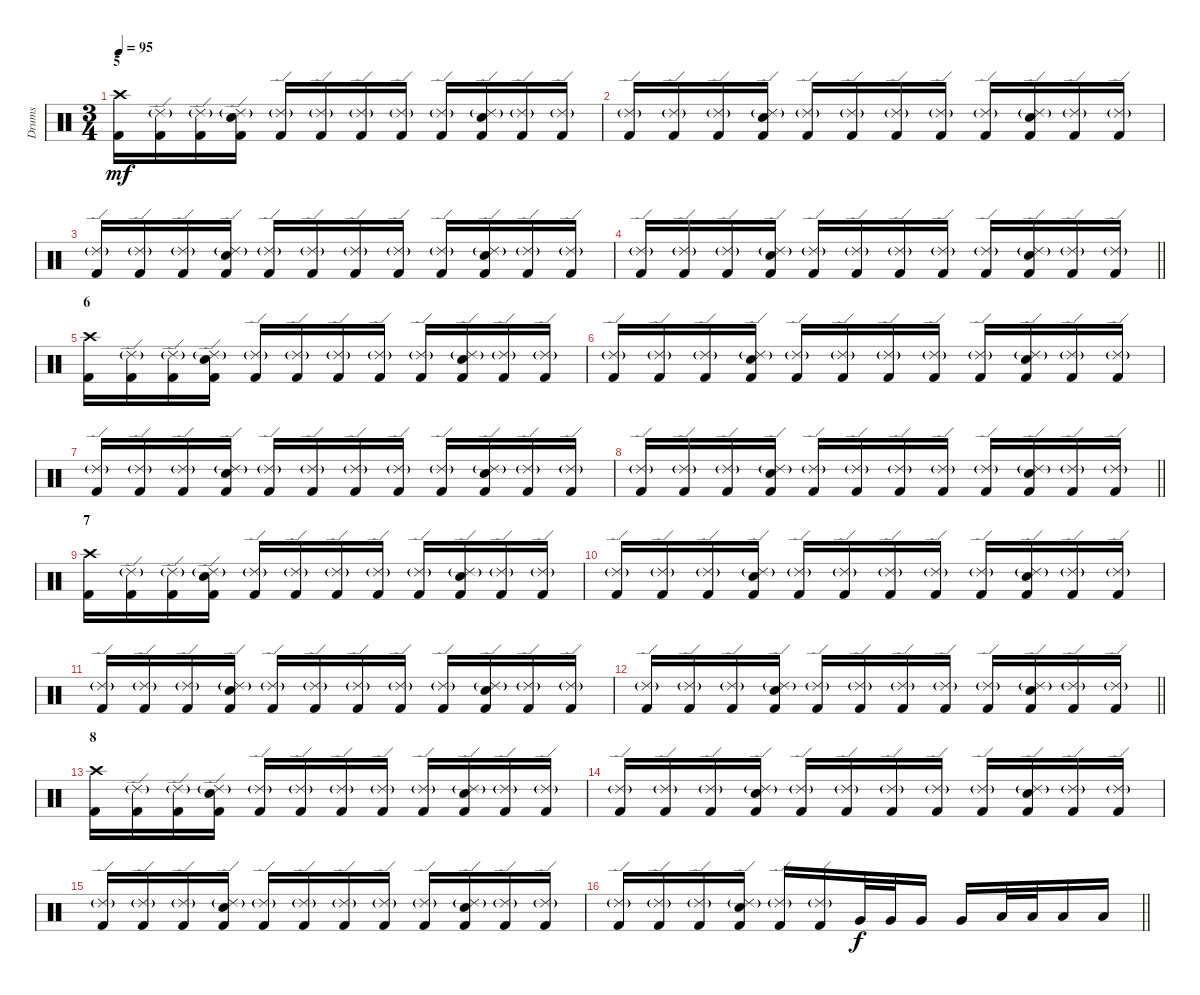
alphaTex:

\track ("Drums" "Drums") {instrument percussion}
\staff {score}
\articulation defaults
\ts (3 4)
\section ("" "5")
\tempo 95
\clef neutral
\ks c
("Crash high (hit)" "Kick (hit) 2").16{dy mf volume 5} ("Ride (edge) 2"{g} "Kick (hit) 2").16 ("Ride (edge) 2"{g} "Kick (hit) 2").16 ("Ride (edge) 2"{g} "Electric Snare (hit)" "Kick (hit) 2").16 ("Ride (edge) 2"{g} "Kick (hit) 2").16 ("Ride (edge) 2"{g} "Kick (hit) 2").16 ("Ride (edge) 2"{g} "Kick (hit) 2").16 ("Ride (edge) 2"{g} "Kick (hit) 2").16 ("Ride (edge) 2"{g} "Kick (hit) 2").16 ("Ride (edge) 2"{g} "Electric Snare (hit)" "Kick (hit) 2").16 ("Ride (edge) 2"{g} "Kick (hit) 2").16 ("Ride (edge) 2"{g} "Kick (hit) 2").16 |
("Ride (edge) 2"{g} "Kick (hit) 2").16 ("Ride (edge) 2"{g} "Kick (hit) 2").16 ("Ride (edge) 2"{g} "Kick (hit) 2").16 ("Ride (edge) 2"{g} "Electric Snare (hit)" "Kick (hit) 2").16 ("Ride (edge) 2"{g} "Kick (hit) 2").16 ("Ride (edge) 2"{g} "Kick (hit) 2").16 ("Ride (edge) 2"{g} "Kick (hit) 2").16 ("Ride (edge) 2"{g} "Kick (hit) 2").16 ("Ride (edge) 2"{g} "Kick (hit) 2").16 ("Ride (edge) 2"{g} "Electric Snare (hit)" "Kick (hit) 2").16 ("Ride (edge) 2"{g} "Kick (hit) 2").16 ("Ride (edge) 2"{g} "Kick (hit) 2").16 |
("Ride (edge) 2"{g} "Kick (hit) 2").16{volume 6} ("Ride (edge) 2"{g} "Kick (hit) 2").16 ("Ride (edge) 2"{g} "Kick (hit) 2").16 ("Ride (edge) 2"{g} "Electric Snare (hit)" "Kick (hit) 2").16 ("Ride (edge) 2"{g} "Kick (hit) 2").16 ("Ride (edge) 2"{g} "Kick (hit) 2").16 ("Ride (edge) 2"{g} "Kick (hit) 2").16 ("Ride (edge) 2"{g} "Kick (hit) 2").16 ("Ride (edge) 2"{g} "Kick (hit) 2").16 ("Ride (edge) 2"{g} "Electric Snare (hit)" "Kick (hit) 2").16 ("Ride (edge) 2"{g} "Kick (hit) 2").16 ("Ride (edge) 2"{g} "Kick (hit) 2").16 |
\barLineRight lightlight
("Ride (edge) 2"{g} "Kick (hit) 2").16{volume 7} ("Ride (edge) 2"{g} "Kick (hit) 2").16 ("Ride (edge) 2"{g} "Kick (hit) 2").16 ("Ride (edge) 2"{g} "Electric Snare (hit)" "Kick (hit) 2").16 ("Ride (edge) 2"{g} "Kick (hit) 2").16 ("Ride (edge) 2"{g} "Kick (hit) 2").16 ("Ride (edge) 2"{g} "Kick (hit) 2").16 ("Ride (edge) 2"{g} "Kick (hit) 2").16 ("Ride (edge) 2"{g} "Kick (hit) 2").16 ("Ride (edge) 2"{g} "Electric Snare (hit)" "Kick (hit) 2").16 ("Ride (edge) 2"{g} "Kick (hit) 2").16 ("Ride (edge) 2"{g} "Kick (hit) 2").16 |
\section ("" "6")
("Crash high (hit)" "Kick (hit) 2").16{volume 8} ("Ride (edge) 2"{g} "Kick (hit) 2").16 ("Ride (edge) 2"{g} "Kick (hit) 2").16 ("Ride (edge) 2"{g} "Electric Snare (hit)" "Kick (hit) 2").16 ("Ride (edge) 2"{g} "Kick (hit) 2").16 ("Ride (edge) 2"{g} "Kick (hit) 2").16 ("Ride (edge) 2"{g} "Kick (hit) 2").16 ("Ride (edge) 2"{g} "Kick (hit) 2").16 ("Ride (edge) 2"{g} "Kick (hit) 2").16 ("Ride (edge) 2"{g} "Electric Snare (hit)" "Kick (hit) 2").16 ("Ride (edge) 2"{g} "Kick (hit) 2").16 ("Ride (edge) 2"{g} "Kick (hit) 2").16 |
("Ride (edge) 2"{g} "Kick (hit) 2").16{volume 8} ("Ride (edge) 2"{g} "Kick (hit) 2").16 ("Ride (edge) 2"{g} "Kick (hit) 2").16 ("Ride (edge) 2"{g} "Electric Snare (hit)" "Kick (hit) 2").16 ("Ride (edge) 2"{g} "Kick (hit) 2").16 ("Ride (edge) 2"{g} "Kick (hit) 2").16 ("Ride (edge) 2"{g} "Kick (hit) 2").16 ("Ride (edge) 2"{g} "Kick (hit) 2").16 ("Ride (edge) 2"{g} "Kick (hit) 2").16 ("Ride (edge) 2"{g} "Electric Snare (hit)" "Kick (hit) 2").16 ("Ride (edge) 2"{g} "Kick (hit) 2").16 ("Ride (edge) 2"{g} "Kick (hit) 2").16 |
("Ride (edge) 2"{g} "Kick (hit) 2").16{volume 9} ("Ride (edge) 2"{g} "Kick (hit) 2").16 ("Ride (edge) 2"{g} "Kick (hit) 2").16 ("Ride (edge) 2"{g} "Electric Snare (hit)" "Kick (hit) 2").16 ("Ride (edge) 2"{g} "Kick (hit) 2").16 ("Ride (edge) 2"{g} "Kick (hit) 2").16 ("Ride (edge) 2"{g} "Kick (hit) 2").16 ("Ride (edge) 2"{g} "Kick (hit) 2").16 ("Ride (edge) 2"{g} "Kick (hit) 2").16 ("Ride (edge) 2"{g} "Electric Snare (hit)" "Kick (hit) 2").16 ("Ride (edge) 2"{g} "Kick (hit) 2").16 ("Ride (edge) 2"{g} "Kick (hit) 2").16 |
\barLineRight lightlight
("Ride (edge) 2"{g} "Kick (hit) 2").16{volume 10} ("Ride (edge) 2"{g} "Kick (hit) 2").16 ("Ride (edge) 2"{g} "Kick (hit) 2").16 ("Ride (edge) 2"{g} "Electric Snare (hit)" "Kick (hit) 2").16 ("Ride (edge) 2"{g} "Kick (hit) 2").16 ("Ride (edge) 2"{g} "Kick (hit) 2").16 ("Ride (edge) 2"{g} "Kick (hit) 2").16 ("Ride (edge) 2"{g} "Kick (hit) 2").16 ("Ride (edge) 2"{g} "Kick (hit) 2").16 ("Ride (edge) 2"{g} "Electric Snare (hit)" "Kick (hit) 2").16 ("Ride (edge) 2"{g} "Kick (hit) 2").16 ("Ride (edge) 2"{g} "Kick (hit) 2").16 |
\section ("" "7")
("Crash high (hit)" "Kick (hit) 2").16{volume 10} ("Ride (edge) 2"{g} "Kick (hit) 2").16 ("Ride (edge) 2"{g} "Kick (hit) 2").16 ("Ride (edge) 2"{g} "Electric Snare (hit)" "Kick (hit) 2").16 ("Ride (edge) 2"{g} "Kick (hit) 2").16 ("Ride (edge) 2"{g} "Kick (hit) 2").16 ("Ride (edge) 2"{g} "Kick (hit) 2").16 ("Ride (edge) 2"{g} "Kick (hit) 2").16 ("Ride (edge) 2"{g} "Kick (hit) 2").16 ("Ride (edge) 2"{g} "Electric Snare (hit)" "Kick (hit) 2").16 ("Ride (edge) 2"{g} "Kick (hit) 2").16 ("Ride (edge) 2"{g} "Kick (hit) 2").16 |
("Ride (edge) 2"{g} "Kick (hit) 2").16 ("Ride (edge) 2"{g} "Kick (hit) 2").16 ("Ride (edge) 2"{g} "Kick (hit) 2").16 ("Ride (edge) 2"{g} "Electric Snare (hit)" "Kick (hit) 2").16 ("Ride (edge) 2"{g} "Kick (hit) 2").16 ("Ride (edge) 2"{g} "Kick (hit) 2").16 ("Ride (edge) 2"{g} "Kick (hit) 2").16 ("Ride (edge) 2"{g} "Kick (hit) 2").16 ("Ride (edge) 2"{g} "Kick (hit) 2").16 ("Ride (edge) 2"{g} "Electric Snare (hit)" "Kick (hit) 2").16 ("Ride (edge) 2"{g} "Kick (hit) 2").16 ("Ride (edge) 2"{g} "Kick (hit) 2").16 |
("Ride (edge) 2"{g} "Kick (hit) 2").16 ("Ride (edge) 2"{g} "Kick (hit) 2").16 ("Ride (edge) 2"{g} "Kick (hit) 2").16 ("Ride (edge) 2"{g} "Electric Snare (hit)" "Kick (hit) 2").16 ("Ride (edge) 2"{g} "Kick (hit) 2").16 ("Ride (edge) 2"{g} "Kick (hit) 2").16 ("Ride (edge) 2"{g} "Kick (hit) 2").16 ("Ride (edge) 2"{g} "Kick (hit) 2").16 ("Ride (edge) 2"{g} "Kick (hit) 2").16 ("Ride (edge) 2"{g} "Electric Snare (hit)" "Kick (hit) 2").16 ("Ride (edge) 2"{g} "Kick (hit) 2").16 ("Ride (edge) 2"{g} "Kick (hit) 2").16 |
\barLineRight lightlight
("Ride (edge) 2"{g} "Kick (hit) 2").16 ("Ride (edge) 2"{g} "Kick (hit) 2").16 ("Ride (edge) 2"{g} "Kick (hit) 2").16 ("Ride (edge) 2"{g} "Electric Snare (hit)" "Kick (hit) 2").16 ("Ride (edge) 2"{g} "Kick (hit) 2").16 ("Ride (edge) 2"{g} "Kick (hit) 2").16 ("Ride (edge) 2"{g} "Kick (hit) 2").16 ("Ride (edge) 2"{g} "Kick (hit) 2").16 ("Ride (edge) 2"{g} "Kick (hit) 2").16 ("Ride (edge) 2"{g} "Electric Snare (hit)" "Kick (hit) 2").16 ("Ride (edge) 2"{g} "Kick (hit) 2").16 ("Ride (edge) 2"{g} "Kick (hit) 2").16 |
\section ("" "8")
("Crash high (hit)" "Kick (hit) 2").16 ("Ride (edge) 2"{g} "Kick (hit) 2").16 ("Ride (edge) 2"{g} "Kick (hit) 2").16 ("Ride (edge) 2"{g} "Electric Snare (hit)" "Kick (hit) 2").16 ("Ride (edge) 2"{g} "Kick (hit) 2").16 ("Ride (edge) 2"{g} "Kick (hit) 2").16 ("Ride (edge) 2"{g} "Kick (hit) 2").16 ("Ride (edge) 2"{g} "Kick (hit) 2").16 ("Ride (edge) 2"{g} "Kick (hit) 2").16 ("Ride (edge) 2"{g} "Electric Snare (hit)" "Kick (hit) 2").16 ("Ride (edge) 2"{g} "Kick (hit) 2").16 ("Ride (edge) 2"{g} "Kick (hit) 2").16 |
("Ride (edge) 2"{g} "Kick (hit) 2").16 ("Ride (edge) 2"{g} "Kick (hit) 2").16 ("Ride (edge) 2"{g} "Kick (hit) 2").16 ("Ride (edge) 2"{g} "Electric Snare (hit)" "Kick (hit) 2").16 ("Ride (edge) 2"{g} "Kick (hit) 2").16 ("Ride (edge) 2"{g} "Kick (hit) 2").16 ("Ride (edge) 2"{g} "Kick (hit) 2").16 ("Ride (edge) 2"{g} "Kick (hit) 2").16 ("Ride (edge) 2"{g} "Kick (hit) 2").16 ("Ride (edge) 2"{g} "Electric Snare (hit)" "Kick (hit) 2").16 ("Ride (edge) 2"{g} "Kick (hit) 2").16 ("Ride (edge) 2"{g} "Kick (hit) 2").16 |
("Ride (edge) 2"{g} "Kick (hit) 2").16 ("Ride (edge) 2"{g} "Kick (hit) 2").16 ("Ride (edge) 2"{g} "Kick (hit) 2").16 ("Ride (edge) 2"{g} "Electric Snare (hit)" "Kick (hit) 2").16 ("Ride (edge) 2"{g} "Kick (hit) 2").16 ("Ride (edge) 2"{g} "Kick (hit) 2").16 ("Ride (edge) 2"{g} "Kick (hit) 2").16 ("Ride (edge) 2"{g} "Kick (hit) 2").16 ("Ride (edge) 2"{g} "Kick (hit) 2").16 ("Ride (edge) 2"{g} "Electric Snare (hit)" "Kick (hit) 2").16 ("Ride (edge) 2"{g} "Kick (hit) 2").16 ("Ride (edge) 2"{g} "Kick (hit) 2").16 |
\barLineRight lightlight
("Ride (edge) 2"{g} "Kick (hit) 2").16 ("Ride (edge) 2"{g} "Kick (hit) 2").16 ("Ride (edge) 2"{g} "Kick (hit) 2").16 ("Ride (edge) 2"{g} "Electric Snare (hit)" "Kick (hit) 2").16 ("Ride (edge) 2"{g} "Kick (hit) 2").16 ("Ride (edge) 2"{g} "Kick (hit) 2").16 "Very Low Tom (hit)".32{dy f} "Very Low Tom (hit)".32 "Very Low Tom (hit)".16 "Very Low Tom (hit)".16 "Low Floor Tom (hit)".32 "Low Floor Tom (hit)".32 "Low Floor Tom (hit)".16 "Low Floor Tom (hit)".16
